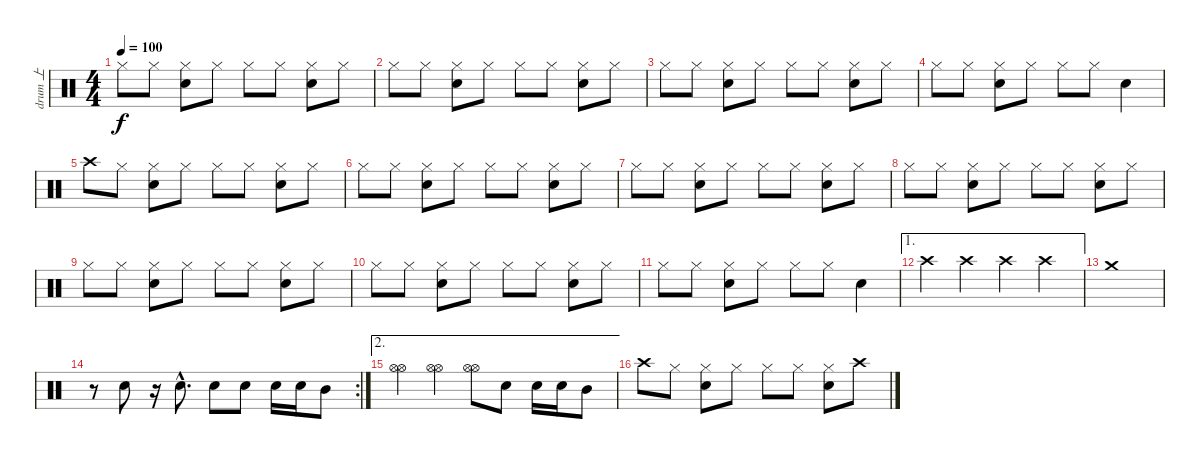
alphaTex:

\track ("drum 上" "drum 上") {instrument percussion}
\staff {score}
\articulation defaults
\ts (4 4)
\tempo 100
\clef neutral
\ks c "Hi-Hat (closed)".8{dy f} "Hi-Hat (closed)".8
("Hi-Hat (closed)" "Snare (hit) 2").8 "Hi-Hat (closed)".8 "Hi-Hat (closed)".8 "Hi-Hat (closed)".8 ("Hi-Hat (closed)" "Snare (hit) 2").8 "Hi-Hat (closed)".8 |
"Hi-Hat (closed)".8 "Hi-Hat (closed)".8 ("Hi-Hat (closed)" "Snare (hit) 2").8 "Hi-Hat (closed)".8 "Hi-Hat (closed)".8 "Hi-Hat (closed)".8 ("Hi-Hat (closed)" "Snare (hit) 2").8 "Hi-Hat (closed)".8 |
"Hi-Hat (closed)".8 "Hi-Hat (closed)".8 ("Hi-Hat (closed)" "Snare (hit) 2").8 "Hi-Hat (closed)".8 "Hi-Hat (closed)".8 "Hi-Hat (closed)".8 ("Hi-Hat (closed)" "Snare (hit) 2").8 "Hi-Hat (closed)".8 |
"Hi-Hat (closed)".8 "Hi-Hat (closed)".8 ("Hi-Hat (closed)" "Snare (hit) 2").8 "Hi-Hat (closed)".8 "Hi-Hat (closed)".8 "Hi-Hat (closed)".8 "Snare (hit) 2".4 |
"Crash high (hit)".8 "Hi-Hat (closed)".8 ("Hi-Hat (closed)" "Snare (hit) 2").8 "Hi-Hat (closed)".8 "Hi-Hat (closed)".8 "Hi-Hat (closed)".8 ("Hi-Hat (closed)" "Snare (hit) 2").8 "Hi-Hat (closed)".8 |
"Hi-Hat (closed)".8 "Hi-Hat (closed)".8 ("Hi-Hat (closed)" "Snare (hit) 2").8 "Hi-Hat (closed)".8 "Hi-Hat (closed)".8 "Hi-Hat (closed)".8 ("Hi-Hat (closed)" "Snare (hit) 2").8 "Hi-Hat (closed)".8 |
"Hi-Hat (closed)".8 "Hi-Hat (closed)".8 ("Hi-Hat (closed)" "Snare (hit) 2").8 "Hi-Hat (closed)".8 "Hi-Hat (closed)".8 "Hi-Hat (closed)".8 ("Hi-Hat (closed)" "Snare (hit) 2").8 "Hi-Hat (closed)".8 |
"Hi-Hat (closed)".8 "Hi-Hat (closed)".8 ("Hi-Hat (closed)" "Snare (hit) 2").8 "Hi-Hat (closed)".8 "Hi-Hat (closed)".8 "Hi-Hat (closed)".8 ("Hi-Hat (closed)" "Snare (hit) 2").8 "Hi-Hat (closed)".8 |
"Hi-Hat (closed)".8 "Hi-Hat (closed)".8 ("Hi-Hat (closed)" "Snare (hit) 2").8 "Hi-Hat (closed)".8 "Hi-Hat (closed)".8 "Hi-Hat (closed)".8 ("Hi-Hat (closed)" "Snare (hit) 2").8 "Hi-Hat (closed)".8 |
"Hi-Hat (closed)".8 "Hi-Hat (closed)".8 ("Hi-Hat (closed)" "Snare (hit) 2").8 "Hi-Hat (closed)".8 "Hi-Hat (closed)".8 "Hi-Hat (closed)".8 ("Hi-Hat (closed)" "Snare (hit) 2").8 "Hi-Hat (closed)".8 |
"Hi-Hat (closed)".8 "Hi-Hat (closed)".8 ("Hi-Hat (closed)" "Snare (hit) 2").8 "Hi-Hat (closed)".8 "Hi-Hat (closed)".8 "Hi-Hat (closed)".8 "Snare (hit) 2".4 |
\ae 1 "Crash high (hit)".4 "Crash high (hit)".4 "Crash high (hit)".4 "Crash high (hit)".4
|
"Crash medium (hit)".1 |
\rc 2
r.8 "Snare (hit) 2".8 r.16 "Snare (hit) 2"{hac}.8{d} "Snare (hit) 2".8 "Snare (hit) 2".8 "Snare (hit) 2".16 "Snare (hit) 2".16 "Mid Tom (hit)".8 |
\ae 2
\section ("" "")
("Hi-Hat (open)" "Hi-Hat (open)").4 ("Hi-Hat (open)" "Hi-Hat (open)").4 ("Hi-Hat (open)" "Hi-Hat (open)").8 "Snare (hit) 2".8 "Snare (hit) 2".16 "Snare (hit) 2".16 "Mid Tom (hit)".8 |
"Crash high (hit)".8 "Hi-Hat (closed)".8 ("Hi-Hat (closed)" "Snare (hit) 2").8 "Hi-Hat (closed)".8 "Hi-Hat (closed)".8 "Hi-Hat (closed)".8 ("Hi-Hat (closed)" "Snare (hit) 2").8 "Crash high (hit)".8
